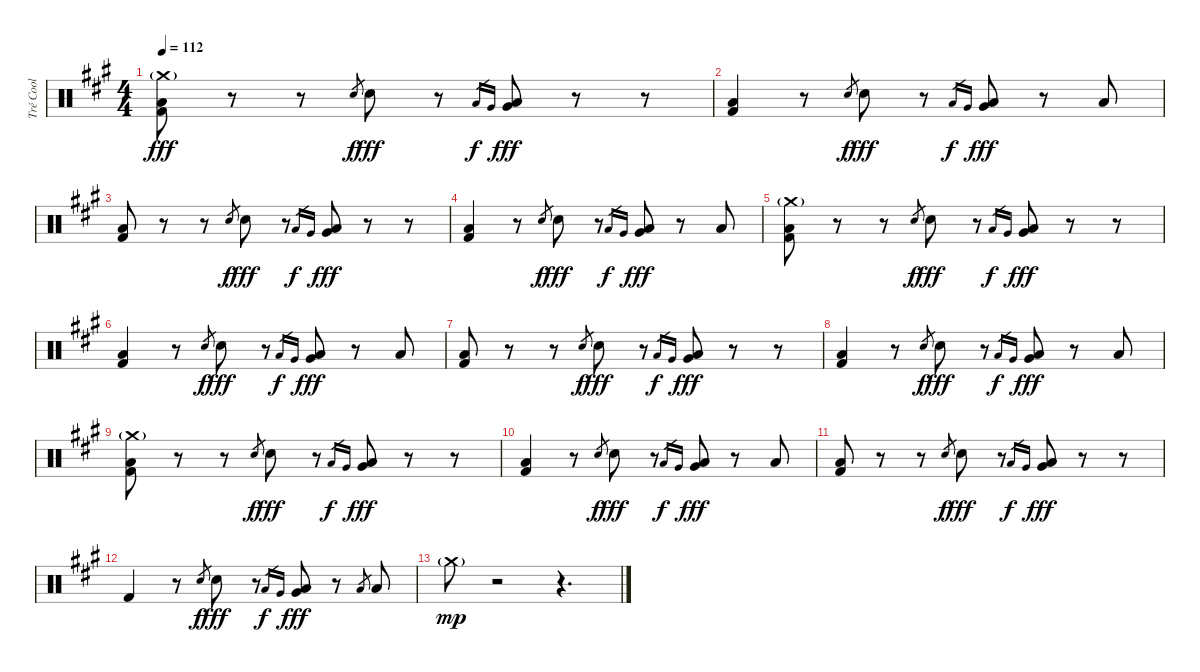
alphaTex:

\track ("Tré Cool" "Tré Cool") {instrument percussion}
\staff {score}
\articulation defaults
\ts (4 4)
\tempo 112
\clef neutral
\ks a
("Crash medium (hit)"{g} "Low Floor Tom (hit)" "Kick (hit) 2").8{dy fff} r.8 r.8 "Electric Snare (hit)".8{gr dy f} "Electric Snare (hit)".8{dy fff} r.8 "Low Floor Tom (hit)".16{gr dy f} "Very Low Tom (hit)".16{gr} ("Low Floor Tom (hit)" "Very Low Tom (hit)").8{dy fff} r.8 r.8 |
("Low Floor Tom (hit)" "Kick (hit) 2").4 r.8 "Electric Snare (hit)".8{gr dy f} "Electric Snare (hit)".8{dy fff} r.8 "Low Floor Tom (hit)".16{gr dy f} "Very Low Tom (hit)".16{gr} ("Low Floor Tom (hit)" "Very Low Tom (hit)").8{dy fff} r.8 "Low Tom (hit)".8 |
("Low Floor Tom (hit)" "Kick (hit) 2").8 r.8 r.8 "Electric Snare (hit)".8{gr dy f} "Electric Snare (hit)".8{dy fff} r.8 "Low Floor Tom (hit)".16{gr dy f} "Very Low Tom (hit)".16{gr} ("Low Floor Tom (hit)" "Very Low Tom (hit)").8{dy fff} r.8 r.8 |
("Low Floor Tom (hit)" "Kick (hit) 2").4 r.8 "Electric Snare (hit)".8{gr dy f} "Electric Snare (hit)".8{dy fff} r.8 "Low Floor Tom (hit)".16{gr dy f} "Very Low Tom (hit)".16{gr} ("Low Floor Tom (hit)" "Very Low Tom (hit)").8{dy fff} r.8 "Low Tom (hit)".8 |
("Crash medium (hit)"{g} "Low Floor Tom (hit)" "Kick (hit) 2").8 r.8 r.8 "Electric Snare (hit)".8{gr dy f} "Electric Snare (hit)".8{dy fff} r.8 "Low Floor Tom (hit)".16{gr dy f} "Very Low Tom (hit)".16{gr} ("Low Floor Tom (hit)" "Very Low Tom (hit)").8{dy fff} r.8 r.8 |
("Low Floor Tom (hit)" "Kick (hit) 2").4 r.8 "Electric Snare (hit)".8{gr dy f} "Electric Snare (hit)".8{dy fff} r.8 "Low Floor Tom (hit)".16{gr dy f} "Very Low Tom (hit)".16{gr} ("Low Floor Tom (hit)" "Very Low Tom (hit)").8{dy fff} r.8 "Low Tom (hit)".8 |
("Low Floor Tom (hit)" "Kick (hit) 2").8 r.8 r.8 "Electric Snare (hit)".8{gr dy f} "Electric Snare (hit)".8{dy fff} r.8 "Low Floor Tom (hit)".16{gr dy f} "Very Low Tom (hit)".16{gr} ("Low Floor Tom (hit)" "Very Low Tom (hit)").8{dy fff} r.8 r.8 |
("Low Floor Tom (hit)" "Kick (hit) 2").4 r.8 "Electric Snare (hit)".8{gr dy f} "Electric Snare (hit)".8{dy fff} r.8 "Low Floor Tom (hit)".16{gr dy f} "Very Low Tom (hit)".16{gr} ("Low Floor Tom (hit)" "Very Low Tom (hit)").8{dy fff} r.8 "Low Tom (hit)".8 |
("Crash medium (hit)"{g} "Low Floor Tom (hit)" "Kick (hit) 2").8 r.8 r.8 "Electric Snare (hit)".8{gr dy f} "Electric Snare (hit)".8{dy fff} r.8 "Low Floor Tom (hit)".16{gr dy f} "Very Low Tom (hit)".16{gr} ("Low Floor Tom (hit)" "Very Low Tom (hit)").8{dy fff} r.8 r.8 |
("Low Floor Tom (hit)" "Kick (hit) 2").4 r.8 "Electric Snare (hit)".8{gr dy f} "Electric Snare (hit)".8{dy fff} r.8 "Low Floor Tom (hit)".16{gr dy f} "Very Low Tom (hit)".16{gr} ("Low Floor Tom (hit)" "Very Low Tom (hit)").8{dy fff} r.8 "Low Tom (hit)".8 |
("Low Floor Tom (hit)" "Kick (hit) 2").8 r.8 r.8 "Electric Snare (hit)".8{gr dy f} "Electric Snare (hit)".8{dy fff} r.8 "Low Floor Tom (hit)".16{gr dy f} "Very Low Tom (hit)".16{gr} ("Low Floor Tom (hit)" "Very Low Tom (hit)").8{dy fff} r.8 r.8 |
"Kick (hit) 2".4 r.8 "Electric Snare (hit)".8{gr dy f} "Electric Snare (hit)".8{dy fff} r.8 "Low Floor Tom (hit)".16{gr dy f} "Very Low Tom (hit)".16{gr} ("Low Floor Tom (hit)" "Very Low Tom (hit)").8{dy fff} r.8 "Low Tom (hit)".8{gr} "Low Tom (hit)".8 |
"Crash medium (hit)"{g}.8{dy mp} r.2 r.4{d}
